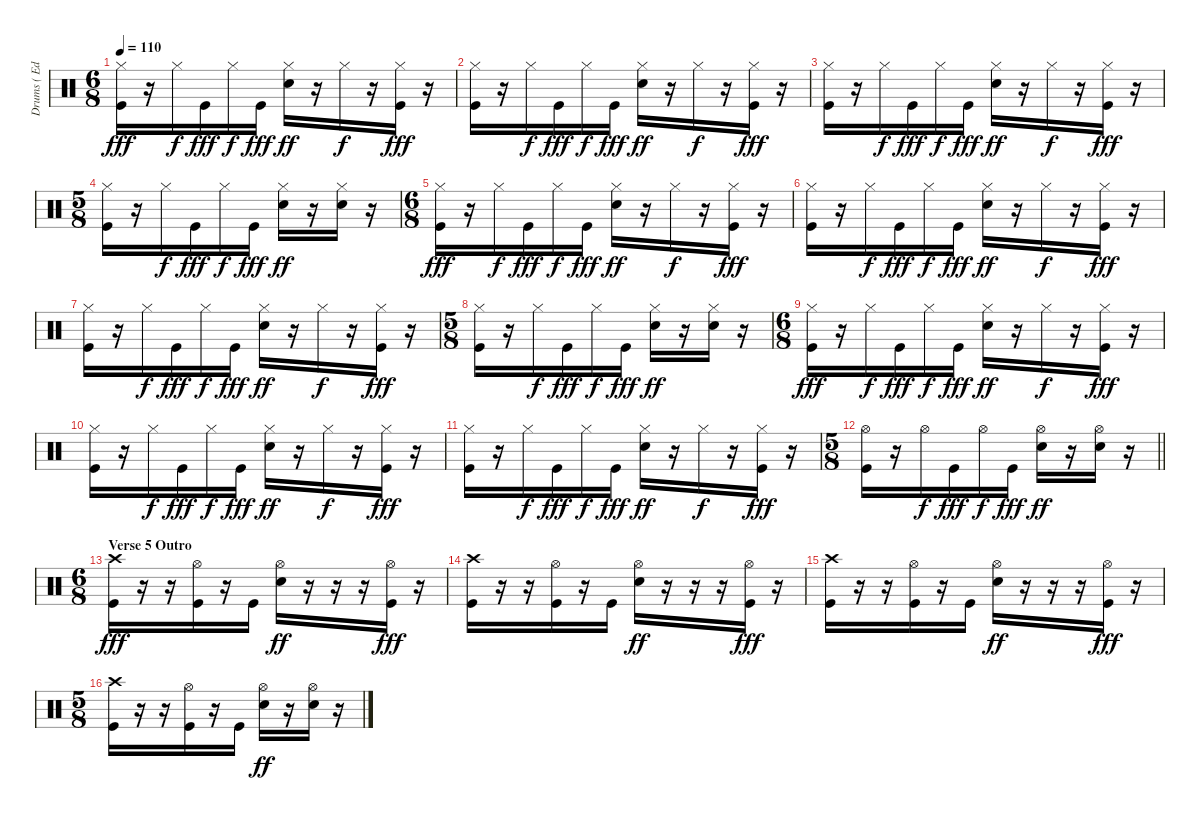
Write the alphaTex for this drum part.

\track ("Drums ( Edward O'Brien )" "Drums ( Ed") {instrument percussion}
\staff {score}
\articulation defaults
\ts (6 8)
\tempo 110
\clef neutral
\ks c
("Hi-Hat (closed)" "Kick (hit)").16{dy fff} r.16 "Hi-Hat (closed)".16{dy f} "Kick (hit)".16{dy fff} "Hi-Hat (closed)".16{dy f} "Kick (hit)".16{dy fff} ("Hi-Hat (closed)" "Electric Snare (hit)").16{dy ff} r.16 "Hi-Hat (closed)".16{dy f} r.16 ("Hi-Hat (closed)" "Kick (hit)").16{dy fff} r.16 |
("Hi-Hat (closed)" "Kick (hit)").16 r.16 "Hi-Hat (closed)".16{dy f} "Kick (hit)".16{dy fff} "Hi-Hat (closed)".16{dy f} "Kick (hit)".16{dy fff} ("Hi-Hat (closed)" "Electric Snare (hit)").16{dy ff} r.16 "Hi-Hat (closed)".16{dy f} r.16 ("Hi-Hat (closed)" "Kick (hit)").16{dy fff} r.16 |
("Hi-Hat (closed)" "Kick (hit)").16 r.16 "Hi-Hat (closed)".16{dy f} "Kick (hit)".16{dy fff} "Hi-Hat (closed)".16{dy f} "Kick (hit)".16{dy fff} ("Hi-Hat (closed)" "Electric Snare (hit)").16{dy ff} r.16 "Hi-Hat (closed)".16{dy f} r.16 ("Hi-Hat (closed)" "Kick (hit)").16{dy fff} r.16 |
\ts (5 8)
("Hi-Hat (closed)" "Kick (hit)").16 r.16 "Hi-Hat (closed)".16{dy f} "Kick (hit)".16{dy fff} "Hi-Hat (closed)".16{dy f} "Kick (hit)".16{dy fff} ("Hi-Hat (closed)" "Electric Snare (hit)").16{dy ff} r.16 ("Hi-Hat (closed)" "Electric Snare (hit)").16 r.16 |
\ts (6 8)
("Hi-Hat (closed)" "Kick (hit)").16{dy fff} r.16 "Hi-Hat (closed)".16{dy f} "Kick (hit)".16{dy fff} "Hi-Hat (closed)".16{dy f} "Kick (hit)".16{dy fff} ("Hi-Hat (closed)" "Electric Snare (hit)").16{dy ff} r.16 "Hi-Hat (closed)".16{dy f} r.16 ("Hi-Hat (closed)" "Kick (hit)").16{dy fff} r.16 |
("Hi-Hat (closed)" "Kick (hit)").16 r.16 "Hi-Hat (closed)".16{dy f} "Kick (hit)".16{dy fff} "Hi-Hat (closed)".16{dy f} "Kick (hit)".16{dy fff} ("Hi-Hat (closed)" "Electric Snare (hit)").16{dy ff} r.16 "Hi-Hat (closed)".16{dy f} r.16 ("Hi-Hat (closed)" "Kick (hit)").16{dy fff} r.16 |
("Hi-Hat (closed)" "Kick (hit)").16 r.16 "Hi-Hat (closed)".16{dy f} "Kick (hit)".16{dy fff} "Hi-Hat (closed)".16{dy f} "Kick (hit)".16{dy fff} ("Hi-Hat (closed)" "Electric Snare (hit)").16{dy ff} r.16 "Hi-Hat (closed)".16{dy f} r.16 ("Hi-Hat (closed)" "Kick (hit)").16{dy fff} r.16 |
\ts (5 8)
("Hi-Hat (closed)" "Kick (hit)").16 r.16 "Hi-Hat (closed)".16{dy f} "Kick (hit)".16{dy fff} "Hi-Hat (closed)".16{dy f} "Kick (hit)".16{dy fff} ("Hi-Hat (closed)" "Electric Snare (hit)").16{dy ff} r.16 ("Hi-Hat (closed)" "Electric Snare (hit)").16 r.16 |
\ts (6 8)
("Hi-Hat (closed)" "Kick (hit)").16{dy fff} r.16 "Hi-Hat (closed)".16{dy f} "Kick (hit)".16{dy fff} "Hi-Hat (closed)".16{dy f} "Kick (hit)".16{dy fff} ("Hi-Hat (closed)" "Electric Snare (hit)").16{dy ff} r.16 "Hi-Hat (closed)".16{dy f} r.16 ("Hi-Hat (closed)" "Kick (hit)").16{dy fff} r.16 |
("Hi-Hat (closed)" "Kick (hit)").16 r.16 "Hi-Hat (closed)".16{dy f} "Kick (hit)".16{dy fff} "Hi-Hat (closed)".16{dy f} "Kick (hit)".16{dy fff} ("Hi-Hat (closed)" "Electric Snare (hit)").16{dy ff} r.16 "Hi-Hat (closed)".16{dy f} r.16 ("Hi-Hat (closed)" "Kick (hit)").16{dy fff} r.16 |
("Hi-Hat (closed)" "Kick (hit)").16 r.16 "Hi-Hat (closed)".16{dy f} "Kick (hit)".16{dy fff} "Hi-Hat (closed)".16{dy f} "Kick (hit)".16{dy fff} ("Hi-Hat (closed)" "Electric Snare (hit)").16{dy ff} r.16 "Hi-Hat (closed)".16{dy f} r.16 ("Hi-Hat (closed)" "Kick (hit)").16{dy fff} r.16 |
\ts (5 8)
\barLineRight lightlight
("Hi-Hat (open)" "Kick (hit)").16 r.16 "Hi-Hat (open)".16{dy f} "Kick (hit)".16{dy fff} "Hi-Hat (open)".16{dy f} "Kick (hit)".16{dy fff} ("Hi-Hat (open)" "Electric Snare (hit)").16{dy ff} r.16 ("Hi-Hat (open)" "Electric Snare (hit)").16 r.16 |
\ts (6 8)
\section ("" "Verse 5 Outro")
("Crash high (hit)" "Kick (hit)").16{dy fff} r.16 r.16 ("Hi-Hat (open)" "Kick (hit)").16 r.16 "Kick (hit)".16 ("Hi-Hat (open)" "Electric Snare (hit)").16{dy ff} r.16 r.16 r.16 ("Hi-Hat (open)" "Kick (hit)").16{dy fff} r.16 |
("Crash high (hit)" "Kick (hit)").16 r.16 r.16 ("Hi-Hat (open)" "Kick (hit)").16 r.16 "Kick (hit)".16 ("Hi-Hat (open)" "Electric Snare (hit)").16{dy ff} r.16 r.16 r.16 ("Hi-Hat (open)" "Kick (hit)").16{dy fff} r.16 |
("Crash high (hit)" "Kick (hit)").16 r.16 r.16 ("Hi-Hat (open)" "Kick (hit)").16 r.16 "Kick (hit)".16 ("Hi-Hat (open)" "Electric Snare (hit)").16{dy ff} r.16 r.16 r.16 ("Hi-Hat (open)" "Kick (hit)").16{dy fff} r.16 |
\ts (5 8)
("Crash high (hit)" "Kick (hit)").16 r.16 r.16 ("Hi-Hat (open)" "Kick (hit)").16 r.16 "Kick (hit)".16 ("Hi-Hat (open)" "Electric Snare (hit)").16{dy ff} r.16 ("Hi-Hat (open)" "Electric Snare (hit)").16 r.16
